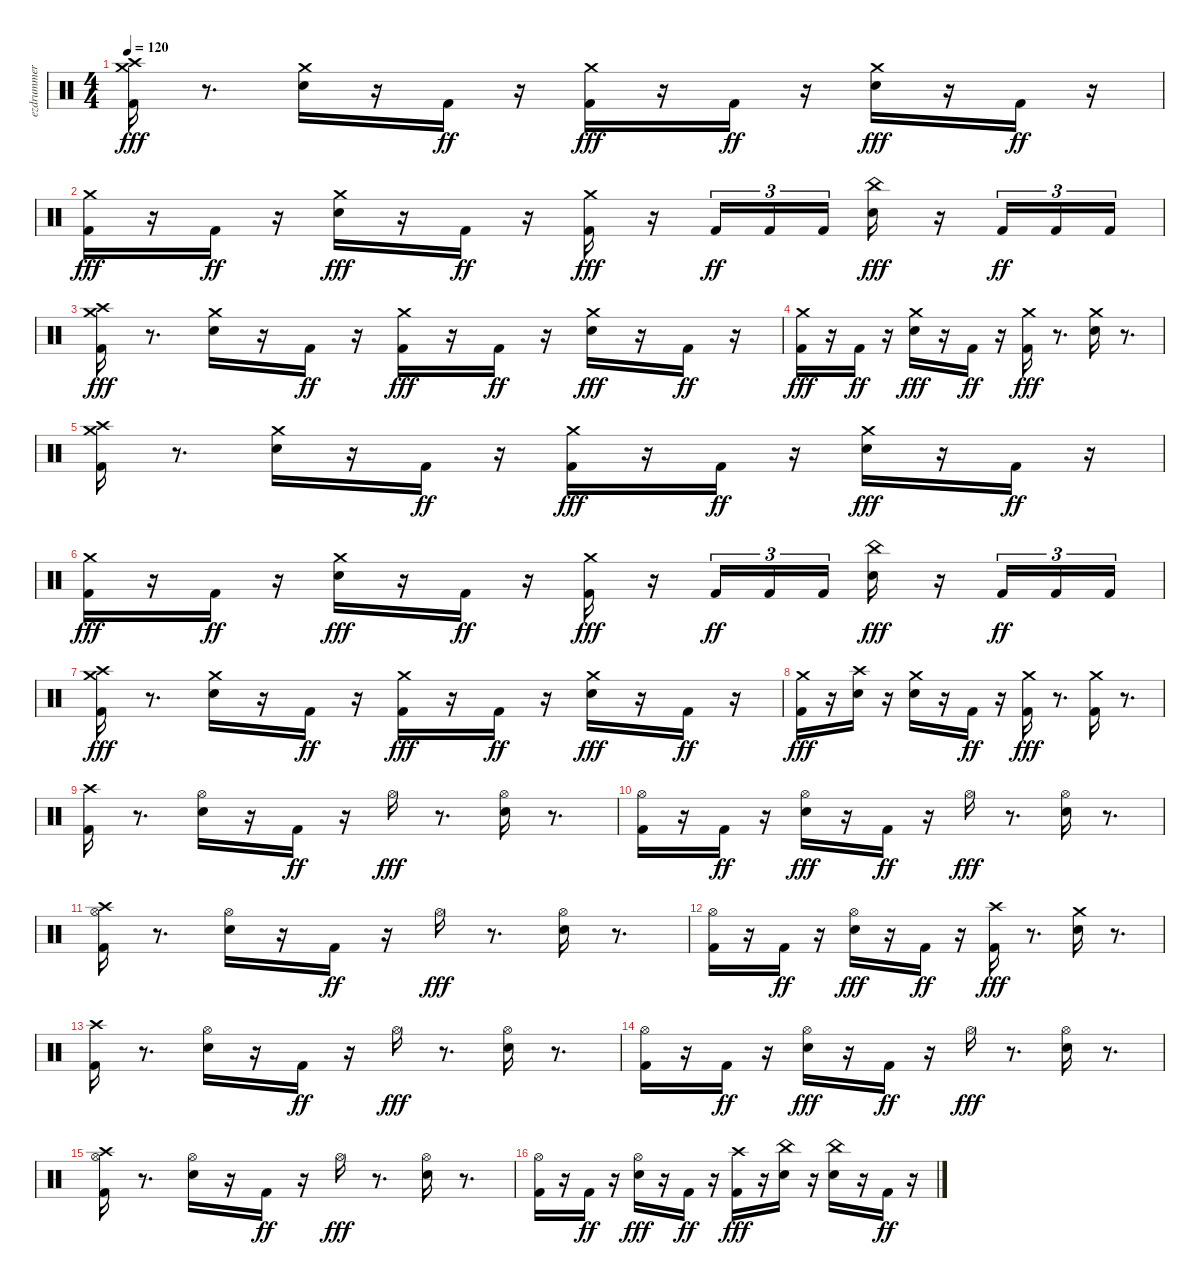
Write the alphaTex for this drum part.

\track ("ezdrummer 02" "ezdrummer ") {instrument percussion}
\staff {score}
\articulation defaults
\ts (4 4)
\tempo 120
\clef neutral
\ks c
("Kick (hit) 2" "Crash high (hit)" "Crash medium (hit)").16{dy fff} r.8{d} ("Snare (hit) 2" "Crash medium (hit)").16 r.16 "Kick (hit) 2".16{dy ff} r.16 ("Kick (hit) 2" "Crash medium (hit)").16{dy fff} r.16 "Kick (hit) 2".16{dy ff} r.16 ("Snare (hit) 2" "Crash medium (hit)").16{dy fff} r.16 "Kick (hit) 2".16{dy ff} r.16 |
("Kick (hit) 2" "Crash medium (hit)").16{dy fff} r.16 "Kick (hit) 2".16{dy ff} r.16 ("Snare (hit) 2" "Crash medium (hit)").16{dy fff} r.16 "Kick (hit) 2".16{dy ff} r.16 ("Kick (hit) 2" "Crash medium (hit)").16{dy fff} r.16 "Kick (hit) 2".16{tu (3 2) dy ff} "Kick (hit) 2".16{tu (3 2)} "Kick (hit) 2".16{tu (3 2)} ("Snare (hit) 2" "China (hit)").16{dy fff} r.16 "Kick (hit) 2".16{tu (3 2) dy ff} "Kick (hit) 2".16{tu (3 2)} "Kick (hit) 2".16{tu (3 2)} |
("Kick (hit) 2" "Crash high (hit)" "Crash medium (hit)").16{dy fff} r.8{d} ("Snare (hit) 2" "Crash medium (hit)").16 r.16 "Kick (hit) 2".16{dy ff} r.16 ("Kick (hit) 2" "Crash medium (hit)").16{dy fff} r.16 "Kick (hit) 2".16{dy ff} r.16 ("Snare (hit) 2" "Crash medium (hit)").16{dy fff} r.16 "Kick (hit) 2".16{dy ff} r.16 |
("Kick (hit) 2" "Crash medium (hit)").16{dy fff} r.16 "Kick (hit) 2".16{dy ff} r.16 ("Snare (hit) 2" "Crash medium (hit)").16{dy fff} r.16 "Kick (hit) 2".16{dy ff} r.16 ("Kick (hit) 2" "Crash medium (hit)").16{dy fff} r.8{d} ("Snare (hit) 2" "Crash medium (hit)").16 r.8{d} |
("Kick (hit) 2" "Crash high (hit)" "Crash medium (hit)").16 r.8{d} ("Snare (hit) 2" "Crash medium (hit)").16 r.16 "Kick (hit) 2".16{dy ff} r.16 ("Kick (hit) 2" "Crash medium (hit)").16{dy fff} r.16 "Kick (hit) 2".16{dy ff} r.16 ("Snare (hit) 2" "Crash medium (hit)").16{dy fff} r.16 "Kick (hit) 2".16{dy ff} r.16 |
("Kick (hit) 2" "Crash medium (hit)").16{dy fff} r.16 "Kick (hit) 2".16{dy ff} r.16 ("Snare (hit) 2" "Crash medium (hit)").16{dy fff} r.16 "Kick (hit) 2".16{dy ff} r.16 ("Kick (hit) 2" "Crash medium (hit)").16{dy fff} r.16 "Kick (hit) 2".16{tu (3 2) dy ff} "Kick (hit) 2".16{tu (3 2)} "Kick (hit) 2".16{tu (3 2)} ("Snare (hit) 2" "China (hit)").16{dy fff} r.16 "Kick (hit) 2".16{tu (3 2) dy ff} "Kick (hit) 2".16{tu (3 2)} "Kick (hit) 2".16{tu (3 2)} |
("Kick (hit) 2" "Crash high (hit)" "Crash medium (hit)").16{dy fff} r.8{d} ("Snare (hit) 2" "Crash medium (hit)").16 r.16 "Kick (hit) 2".16{dy ff} r.16 ("Kick (hit) 2" "Crash medium (hit)").16{dy fff} r.16 "Kick (hit) 2".16{dy ff} r.16 ("Snare (hit) 2" "Crash medium (hit)").16{dy fff} r.16 "Kick (hit) 2".16{dy ff} r.16 |
("Kick (hit) 2" "Crash medium (hit)").16{dy fff} r.16 ("Snare (hit) 2" "Crash high (hit)").16 r.16 ("Snare (hit) 2" "Crash medium (hit)").16 r.16 "Kick (hit) 2".16{dy ff} r.16 ("Kick (hit) 2" "Crash medium (hit)").16{dy fff} r.8{d} ("Kick (hit) 2" "Crash medium (hit)").16 r.8{d} |
("Kick (hit) 2" "Crash high (hit)").16 r.8{d} ("Snare (hit) 2" "Hi-Hat (open)").16 r.16 "Kick (hit) 2".16{dy ff} r.16 "Hi-Hat (open)".16{dy fff} r.8{d} ("Snare (hit) 2" "Hi-Hat (open)").16 r.8{d} |
("Kick (hit) 2" "Hi-Hat (open)").16 r.16 "Kick (hit) 2".16{dy ff} r.16 ("Snare (hit) 2" "Hi-Hat (open)").16{dy fff} r.16 "Kick (hit) 2".16{dy ff} r.16 "Hi-Hat (open)".16{dy fff} r.8{d} ("Snare (hit) 2" "Hi-Hat (open)").16 r.8{d} |
("Kick (hit) 2" "Hi-Hat (open)" "Crash high (hit)").16 r.8{d} ("Snare (hit) 2" "Hi-Hat (open)").16 r.16 "Kick (hit) 2".16{dy ff} r.16 "Hi-Hat (open)".16{dy fff} r.8{d} ("Snare (hit) 2" "Hi-Hat (open)").16 r.8{d} |
("Kick (hit) 2" "Hi-Hat (open)").16 r.16 "Kick (hit) 2".16{dy ff} r.16 ("Snare (hit) 2" "Hi-Hat (open)").16{dy fff} r.16 "Kick (hit) 2".16{dy ff} r.16 ("Kick (hit) 2" "Crash high (hit)").16{dy fff} r.8{d} ("Snare (hit) 2" "Crash medium (hit)").16 r.8{d} |
("Kick (hit) 2" "Crash high (hit)").16 r.8{d} ("Snare (hit) 2" "Hi-Hat (open)").16 r.16 "Kick (hit) 2".16{dy ff} r.16 "Hi-Hat (open)".16{dy fff} r.8{d} ("Snare (hit) 2" "Hi-Hat (open)").16 r.8{d} |
("Kick (hit) 2" "Hi-Hat (open)").16 r.16 "Kick (hit) 2".16{dy ff} r.16 ("Snare (hit) 2" "Hi-Hat (open)").16{dy fff} r.16 "Kick (hit) 2".16{dy ff} r.16 "Hi-Hat (open)".16{dy fff} r.8{d} ("Snare (hit) 2" "Hi-Hat (open)").16 r.8{d} |
("Kick (hit) 2" "Hi-Hat (open)" "Crash high (hit)").16 r.8{d} ("Snare (hit) 2" "Hi-Hat (open)").16 r.16 "Kick (hit) 2".16{dy ff} r.16 "Hi-Hat (open)".16{dy fff} r.8{d} ("Snare (hit) 2" "Hi-Hat (open)").16 r.8{d} |
("Kick (hit) 2" "Hi-Hat (open)").16 r.16 "Kick (hit) 2".16{dy ff} r.16 ("Snare (hit) 2" "Hi-Hat (open)").16{dy fff} r.16 "Kick (hit) 2".16{dy ff} r.16 ("Kick (hit) 2" "Crash high (hit)").16{dy fff} r.16 ("Snare (hit) 2" "China (hit)").16 r.16 ("Snare (hit) 2" "China (hit)").16 r.16 "Kick (hit) 2".16{dy ff} r.16
